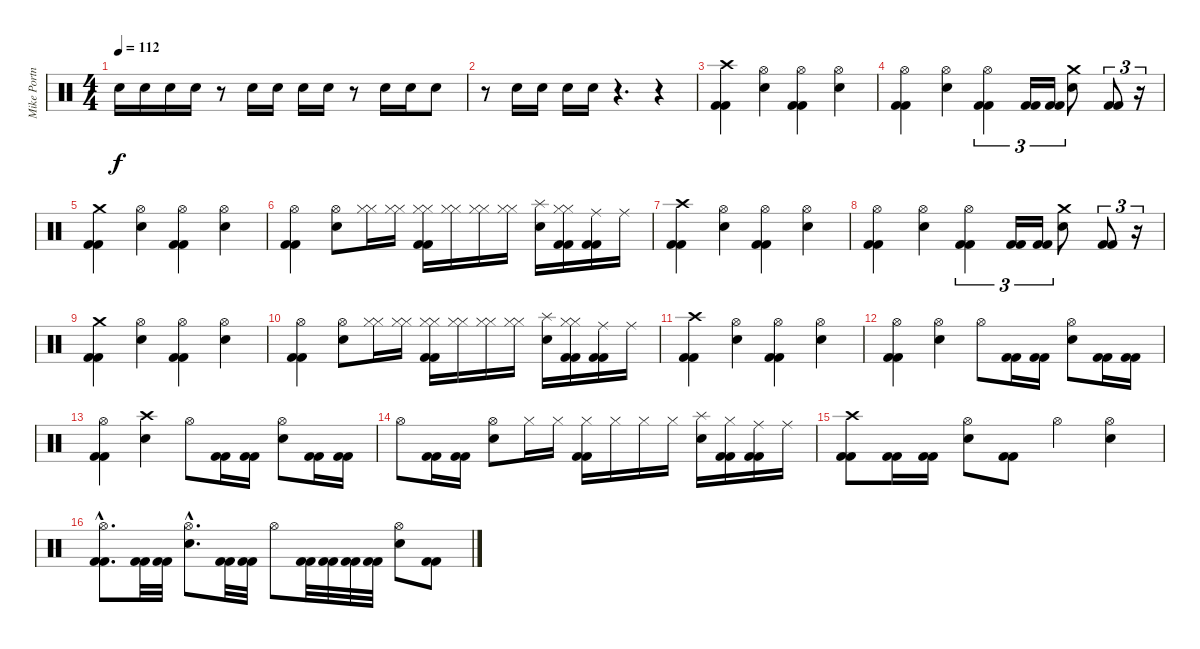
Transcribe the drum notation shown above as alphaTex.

\track ("Mike Portnoy - Drum" "Mike Portn") {instrument percussion}
\staff {score}
\articulation defaults
\ts (4 4)
\tempo 112
\clef neutral
\ks c "Snare (hit) 2".16{dy f} "Snare (hit) 2".16 "Snare (hit) 2".16 "Snare (hit) 2".16
r.8 "Snare (hit) 2".16 "Snare (hit) 2".16 "Snare (hit) 2".16 "Snare (hit) 2".16 r.8 "Snare (hit) 2".16 "Snare (hit) 2".16 "Snare (hit) 2".8 |
r.8 "Snare (hit) 2".16 "Snare (hit) 2".16 "Snare (hit) 2".16 "Snare (hit) 2".16 r.4{d} r.4 |
("Crash high (hit)" "Kick (hit) 2" "Kick (hit) 2").4 ("Hi-Hat (open)" "Snare (hit) 2").4 ("Hi-Hat (open)" "Kick (hit) 2" "Kick (hit) 2").4 ("Hi-Hat (open)" "Snare (hit) 2").4 |
("Hi-Hat (open)" "Kick (hit) 2" "Kick (hit) 2").4 ("Hi-Hat (open)" "Snare (hit) 2").4 ("Hi-Hat (open)" "Kick (hit) 2" "Kick (hit) 2").4{tu (3 2)} ("Kick (hit) 2" "Kick (hit) 2").16{tu (3 2)} ("Kick (hit) 2" "Kick (hit) 2").16{tu (3 2)} ("Crash medium (hit)" "Snare (hit) 2").8 ("Kick (hit) 2" "Kick (hit) 2").8{tu (3 2)} r.16{tu (3 2)} |
("Crash medium (hit)" "Kick (hit) 2" "Kick (hit) 2").4 ("Hi-Hat (open)" "Snare (hit) 2").4 ("Hi-Hat (open)" "Kick (hit) 2" "Kick (hit) 2").4 ("Hi-Hat (open)" "Snare (hit) 2").4 |
("Hi-Hat (open)" "Kick (hit) 2" "Kick (hit) 2").4 ("Hi-Hat (open)" "Snare (hit) 2").8 ("Hi-Hat (closed)" "Hi-Hat (closed)").16 ("Hi-Hat (closed)" "Hi-Hat (closed)").16 ("Hi-Hat (closed)" "Hi-Hat (closed)" "Kick (hit) 2" "Kick (hit) 2").16 ("Hi-Hat (closed)" "Hi-Hat (closed)").16 ("Hi-Hat (closed)" "Hi-Hat (closed)").16 ("Hi-Hat (closed)" "Hi-Hat (closed)").16 ("Splash (hit)" "Snare (hit) 2").16 ("Hi-Hat (closed)" "Hi-Hat (closed)" "Kick (hit) 2" "Kick (hit) 2").16 ("Ride (middle)" "Kick (hit) 2" "Kick (hit) 2").16 "Ride (middle)".16 |
("Crash high (hit)" "Kick (hit) 2" "Kick (hit) 2").4 ("Hi-Hat (open)" "Snare (hit) 2").4 ("Hi-Hat (open)" "Kick (hit) 2" "Kick (hit) 2").4 ("Hi-Hat (open)" "Snare (hit) 2").4 |
("Hi-Hat (open)" "Kick (hit) 2" "Kick (hit) 2").4 ("Hi-Hat (open)" "Snare (hit) 2").4 ("Hi-Hat (open)" "Kick (hit) 2" "Kick (hit) 2").4{tu (3 2)} ("Kick (hit) 2" "Kick (hit) 2").16{tu (3 2)} ("Kick (hit) 2" "Kick (hit) 2").16{tu (3 2)} ("Crash medium (hit)" "Snare (hit) 2").8 ("Kick (hit) 2" "Kick (hit) 2").8{tu (3 2)} r.16{tu (3 2)} |
("Crash medium (hit)" "Kick (hit) 2" "Kick (hit) 2").4 ("Hi-Hat (open)" "Snare (hit) 2").4 ("Hi-Hat (open)" "Kick (hit) 2" "Kick (hit) 2").4 ("Hi-Hat (open)" "Snare (hit) 2").4 |
("Hi-Hat (open)" "Kick (hit) 2" "Kick (hit) 2").4 ("Hi-Hat (open)" "Snare (hit) 2").8 ("Hi-Hat (closed)" "Hi-Hat (closed)").16 ("Hi-Hat (closed)" "Hi-Hat (closed)").16 ("Hi-Hat (closed)" "Hi-Hat (closed)" "Kick (hit) 2" "Kick (hit) 2").16 ("Hi-Hat (closed)" "Hi-Hat (closed)").16 ("Hi-Hat (closed)" "Hi-Hat (closed)").16 ("Hi-Hat (closed)" "Hi-Hat (closed)").16 ("Splash (hit)" "Snare (hit) 2").16 ("Hi-Hat (closed)" "Hi-Hat (closed)" "Kick (hit) 2" "Kick (hit) 2").16 ("Ride (middle)" "Kick (hit) 2" "Kick (hit) 2").16 "Ride (middle)".16 |
("Crash high (hit)" "Kick (hit) 2" "Kick (hit) 2").4 ("Hi-Hat (open)" "Snare (hit) 2").4 ("Hi-Hat (open)" "Kick (hit) 2" "Kick (hit) 2").4 ("Hi-Hat (open)" "Snare (hit) 2").4 |
("Hi-Hat (open)" "Kick (hit) 2" "Kick (hit) 2").4 ("Hi-Hat (open)" "Snare (hit) 2").4 "Hi-Hat (open)".8 ("Kick (hit) 2" "Kick (hit) 2").16 ("Kick (hit) 2" "Kick (hit) 2").16 ("Hi-Hat (open)" "Snare (hit) 2").8 ("Kick (hit) 2" "Kick (hit) 2").16 ("Kick (hit) 2" "Kick (hit) 2").16 |
("Hi-Hat (open)" "Kick (hit) 2" "Kick (hit) 2").4 ("Crash high (hit)" "Snare (hit) 2").4 "Hi-Hat (open)".8 ("Kick (hit) 2" "Kick (hit) 2").16 ("Kick (hit) 2" "Kick (hit) 2").16 ("Hi-Hat (open)" "Snare (hit) 2").8 ("Kick (hit) 2" "Kick (hit) 2").16 ("Kick (hit) 2" "Kick (hit) 2").16 |
"Hi-Hat (open)".8 ("Kick (hit) 2" "Kick (hit) 2").16 ("Kick (hit) 2" "Kick (hit) 2").16 ("Hi-Hat (open)" "Snare (hit) 2").8 "Hi-Hat (closed)".16 "Hi-Hat (closed)".16 ("Hi-Hat (closed)" "Kick (hit) 2" "Kick (hit) 2").16 "Hi-Hat (closed)".16 "Hi-Hat (closed)".16 "Hi-Hat (closed)".16 ("Splash (hit)" "Snare (hit) 2").16 ("Hi-Hat (closed)" "Kick (hit) 2" "Kick (hit) 2").16 ("Ride (middle)" "Kick (hit) 2" "Kick (hit) 2").16 "Ride (middle)".16 |
("Crash high (hit)" "Kick (hit) 2" "Kick (hit) 2").8 ("Kick (hit) 2" "Kick (hit) 2").16 ("Kick (hit) 2" "Kick (hit) 2").16 ("Hi-Hat (open)" "Snare (hit) 2").8 ("Kick (hit) 2" "Kick (hit) 2").8 "Hi-Hat (open)".4 ("Hi-Hat (open)" "Snare (hit) 2").4 |
("Hi-Hat (open)"{hac} "Kick (hit) 2"{hac} "Kick (hit) 2"{hac}).8{d} ("Kick (hit) 2" "Kick (hit) 2").32 ("Kick (hit) 2" "Kick (hit) 2").32 ("Hi-Hat (open)"{hac} "Snare (hit) 2"{hac}).8{d} ("Kick (hit) 2" "Kick (hit) 2").32 ("Kick (hit) 2" "Kick (hit) 2").32 "Hi-Hat (open)".8 ("Kick (hit) 2" "Kick (hit) 2").32 ("Kick (hit) 2" "Kick (hit) 2").32 ("Kick (hit) 2" "Kick (hit) 2").32 ("Kick (hit) 2" "Kick (hit) 2").32 ("Hi-Hat (open)" "Snare (hit) 2").8 ("Kick (hit) 2" "Kick (hit) 2").8
